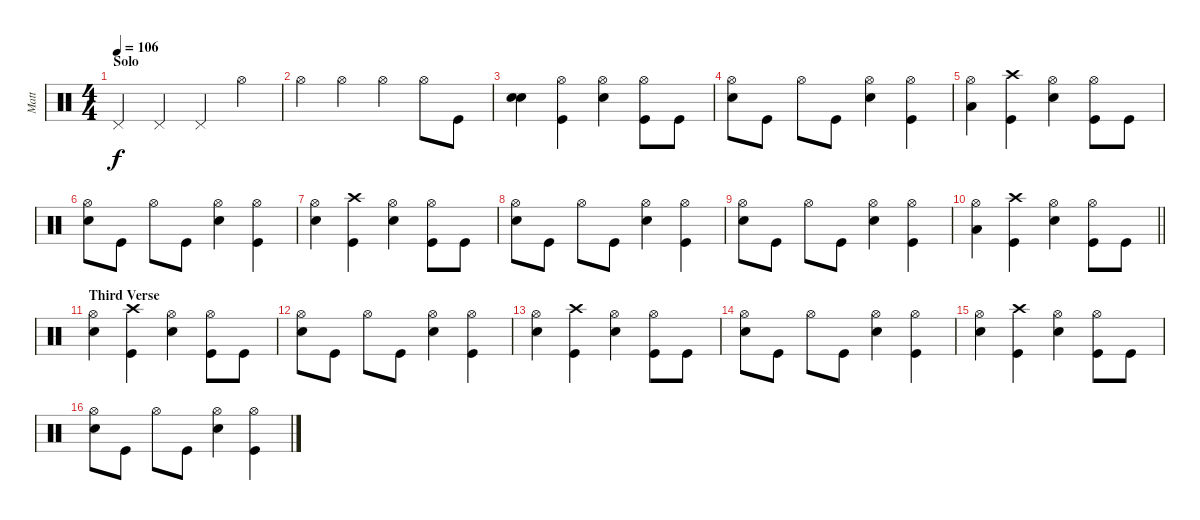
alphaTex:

\track ("Matt" "Matt") {instrument percussion}
\staff {score}
\articulation defaults
\ts (4 4)
\section ("" "Solo")
\tempo 106
\clef neutral
\ks c "Pedal Hi-Hat (hit)".4{dy f} "Pedal Hi-Hat (hit)".4 "Pedal Hi-Hat (hit)".4 "Hi-Hat (open)".4
|
"Hi-Hat (open)".4 "Hi-Hat (open)".4 "Hi-Hat (open)".4 "Hi-Hat (open)".8 "Kick (hit)".8 |
("Electric Snare (hit)" "Electric Snare (hit)").4 ("Hi-Hat (open)" "Kick (hit)").4 ("Electric Snare (hit)" "Hi-Hat (open)").4 ("Hi-Hat (open)" "Kick (hit)").8 "Kick (hit)".8 |
("Electric Snare (hit)" "Hi-Hat (open)").8 "Kick (hit)".8 "Hi-Hat (open)".8 "Kick (hit)".8 ("Electric Snare (hit)" "Hi-Hat (open)").4 ("Hi-Hat (open)" "Kick (hit)").4 |
("Low Floor Tom (hit)" "Hi-Hat (open)").4 ("Crash high (hit)" "Kick (hit)").4 ("Electric Snare (hit)" "Hi-Hat (open)").4 ("Hi-Hat (open)" "Kick (hit)").8 "Kick (hit)".8 |
("Electric Snare (hit)" "Hi-Hat (open)").8 "Kick (hit)".8 "Hi-Hat (open)".8 "Kick (hit)".8 ("Electric Snare (hit)" "Hi-Hat (open)").4 ("Hi-Hat (open)" "Kick (hit)").4 |
("Electric Snare (hit)" "Hi-Hat (open)").4 ("Crash high (hit)" "Kick (hit)").4 ("Electric Snare (hit)" "Hi-Hat (open)").4 ("Hi-Hat (open)" "Kick (hit)").8 "Kick (hit)".8 |
("Electric Snare (hit)" "Hi-Hat (open)").8 "Kick (hit)".8 "Hi-Hat (open)".8 "Kick (hit)".8 ("Electric Snare (hit)" "Hi-Hat (open)").4 ("Hi-Hat (open)" "Kick (hit)").4 |
("Electric Snare (hit)" "Hi-Hat (open)").8 "Kick (hit)".8 "Hi-Hat (open)".8 "Kick (hit)".8 ("Electric Snare (hit)" "Hi-Hat (open)").4 ("Hi-Hat (open)" "Kick (hit)").4 |
\barLineRight lightlight
("Low Floor Tom (hit)" "Hi-Hat (open)").4 ("Crash high (hit)" "Kick (hit)").4 ("Electric Snare (hit)" "Hi-Hat (open)").4 ("Hi-Hat (open)" "Kick (hit)").8 "Kick (hit)".8 |
\section ("" "Third Verse")
("Electric Snare (hit)" "Hi-Hat (open)").4 ("Crash high (hit)" "Kick (hit)").4 ("Electric Snare (hit)" "Hi-Hat (open)").4 ("Hi-Hat (open)" "Kick (hit)").8 "Kick (hit)".8 |
("Electric Snare (hit)" "Hi-Hat (open)").8 "Kick (hit)".8 "Hi-Hat (open)".8 "Kick (hit)".8 ("Electric Snare (hit)" "Hi-Hat (open)").4 ("Hi-Hat (open)" "Kick (hit)").4 |
("Electric Snare (hit)" "Hi-Hat (open)").4 ("Crash high (hit)" "Kick (hit)").4 ("Electric Snare (hit)" "Hi-Hat (open)").4 ("Hi-Hat (open)" "Kick (hit)").8 "Kick (hit)".8 |
("Electric Snare (hit)" "Hi-Hat (open)").8 "Kick (hit)".8 "Hi-Hat (open)".8 "Kick (hit)".8 ("Electric Snare (hit)" "Hi-Hat (open)").4 ("Hi-Hat (open)" "Kick (hit)").4 |
("Electric Snare (hit)" "Hi-Hat (open)").4 ("Crash high (hit)" "Kick (hit)").4 ("Electric Snare (hit)" "Hi-Hat (open)").4 ("Hi-Hat (open)" "Kick (hit)").8 "Kick (hit)".8 |
("Electric Snare (hit)" "Hi-Hat (open)").8 "Kick (hit)".8 "Hi-Hat (open)".8 "Kick (hit)".8 ("Electric Snare (hit)" "Hi-Hat (open)").4 ("Hi-Hat (open)" "Kick (hit)").4
